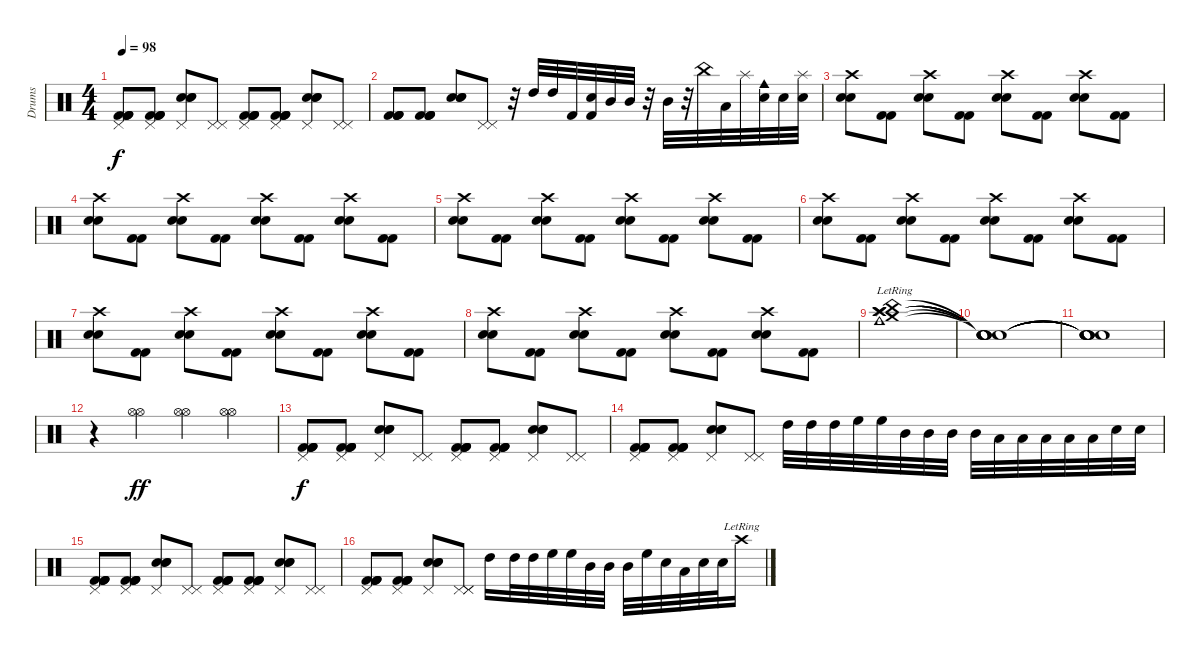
\track ("Drums" "Drums") {instrument percussion}
\staff {score}
\articulation defaults
\ts (4 4)
\tempo 98
\clef neutral
\ks c
("Pedal Hi-Hat (hit)" "Kick (hit) 2" "Kick (hit) 2" "Kick (hit) 2" "Kick (hit) 2").8{dy f} ("Pedal Hi-Hat (hit)" "Kick (hit) 2" "Kick (hit) 2" "Kick (hit) 2" "Kick (hit) 2").8 ("Pedal Hi-Hat (hit)" "Electric Snare (hit)" "Electric Snare (hit)" "Electric Snare (hit)").8 ("Pedal Hi-Hat (hit)" "Pedal Hi-Hat (hit)").8 ("Pedal Hi-Hat (hit)" "Kick (hit) 2" "Kick (hit) 2" "Kick (hit) 2" "Kick (hit) 2").8 ("Pedal Hi-Hat (hit)" "Kick (hit) 2" "Kick (hit) 2" "Kick (hit) 2" "Kick (hit) 2").8 ("Pedal Hi-Hat (hit)" "Electric Snare (hit)" "Electric Snare (hit)" "Electric Snare (hit)").8 ("Pedal Hi-Hat (hit)" "Pedal Hi-Hat (hit)").8 |
("Kick (hit) 2" "Kick (hit) 2" "Kick (hit) 2" "Kick (hit) 2").8 ("Kick (hit) 2" "Kick (hit) 2" "Kick (hit) 2" "Kick (hit) 2").8 ("Electric Snare (hit)" "Electric Snare (hit)" "Electric Snare (hit)").8 ("Pedal Hi-Hat (hit)" "Pedal Hi-Hat (hit)").8 r.32 "High Tom (hit)".32 "High Tom (hit)".32 "Kick (hit) 2".32 ("Electric Snare (hit)" "Kick (hit) 2").32 "Mid Tom (hit)".32 "Mid Tom (hit)".32 r.32 "Mid Tom (hit)".32 r.32 "China (hit)".32 "Low Tom (hit)".32 "Splash (hit)".32 ("Electric Snare (hit)" "Cowbell medium (hit)").32 "Electric Snare (hit)".32 ("Splash (hit)" "Electric Snare (hit)").32 |
("Crash high (hit)" "Electric Snare (hit)" "Electric Snare (hit)").8 ("Kick (hit) 2" "Kick (hit) 2").8 ("Crash high (hit)" "Electric Snare (hit)" "Electric Snare (hit)").8 ("Kick (hit) 2" "Kick (hit) 2").8 ("Crash high (hit)" "Electric Snare (hit)" "Electric Snare (hit)").8 ("Kick (hit) 2" "Kick (hit) 2").8 ("Crash high (hit)" "Electric Snare (hit)" "Electric Snare (hit)").8 ("Kick (hit) 2" "Kick (hit) 2").8 |
("Crash high (hit)" "Electric Snare (hit)" "Electric Snare (hit)").8{volume 12} ("Kick (hit) 2" "Kick (hit) 2").8 ("Crash high (hit)" "Electric Snare (hit)" "Electric Snare (hit)").8 ("Kick (hit) 2" "Kick (hit) 2").8 ("Crash high (hit)" "Electric Snare (hit)" "Electric Snare (hit)").8 ("Kick (hit) 2" "Kick (hit) 2").8 ("Crash high (hit)" "Electric Snare (hit)" "Electric Snare (hit)").8 ("Kick (hit) 2" "Kick (hit) 2").8 |
("Crash high (hit)" "Electric Snare (hit)" "Electric Snare (hit)").8 ("Kick (hit) 2" "Kick (hit) 2").8 ("Crash high (hit)" "Electric Snare (hit)" "Electric Snare (hit)").8 ("Kick (hit) 2" "Kick (hit) 2").8 ("Crash high (hit)" "Electric Snare (hit)" "Electric Snare (hit)").8 ("Kick (hit) 2" "Kick (hit) 2").8 ("Crash high (hit)" "Electric Snare (hit)" "Electric Snare (hit)").8 ("Kick (hit) 2" "Kick (hit) 2").8 |
("Crash high (hit)" "Electric Snare (hit)" "Electric Snare (hit)").8 ("Kick (hit) 2" "Kick (hit) 2").8 ("Crash high (hit)" "Electric Snare (hit)" "Electric Snare (hit)").8 ("Kick (hit) 2" "Kick (hit) 2").8 ("Crash high (hit)" "Electric Snare (hit)" "Electric Snare (hit)").8 ("Kick (hit) 2" "Kick (hit) 2").8 ("Crash high (hit)" "Electric Snare (hit)" "Electric Snare (hit)").8 ("Kick (hit) 2" "Kick (hit) 2").8 |
("Crash high (hit)" "Electric Snare (hit)" "Electric Snare (hit)").8 ("Kick (hit) 2" "Kick (hit) 2").8 ("Crash high (hit)" "Electric Snare (hit)" "Electric Snare (hit)").8 ("Kick (hit) 2" "Kick (hit) 2").8 ("Crash high (hit)" "Electric Snare (hit)" "Electric Snare (hit)").8 ("Kick (hit) 2" "Kick (hit) 2").8 ("Crash high (hit)" "Electric Snare (hit)" "Electric Snare (hit)").8 ("Kick (hit) 2" "Kick (hit) 2").8 |
("Crash high (hit)" "Electric Snare (hit)" "Electric Snare (hit)").8 ("Kick (hit) 2" "Kick (hit) 2").8 ("Crash high (hit)" "Electric Snare (hit)" "Electric Snare (hit)").8 ("Kick (hit) 2" "Kick (hit) 2").8 ("Crash high (hit)" "Electric Snare (hit)" "Electric Snare (hit)").8 ("Kick (hit) 2" "Kick (hit) 2").8 ("Crash high (hit)" "Electric Snare (hit)" "Electric Snare (hit)").8 ("Kick (hit) 2" "Kick (hit) 2").8 |
("Cowbell medium (hit)"{lr} "Crash high (hit)"{lr} "Crash high (hit)"{lr} "Crash medium (hit)"{lr} "China (hit)"{lr} "Splash (hit)"{lr}).1 |
("Snare (hit)"{t} "Snare (hit)"{t} "Snare (hit)"{t} "Snare (hit)"{t} "Snare (hit)"{t} "Snare (hit)"{t}).1 |
("Snare (hit)"{t} "Snare (hit)"{t} "Snare (hit)"{t} "Snare (hit)"{t} "Snare (hit)"{t} "Snare (hit)"{t}).1 |
r.4 ("Hi-Hat (open)" "Hi-Hat (open)").4{dy ff} ("Hi-Hat (open)" "Hi-Hat (open)").4 ("Hi-Hat (open)" "Hi-Hat (open)").4 |
("Pedal Hi-Hat (hit)" "Kick (hit) 2" "Kick (hit) 2" "Kick (hit) 2" "Kick (hit) 2").8{dy f} ("Pedal Hi-Hat (hit)" "Kick (hit) 2" "Kick (hit) 2" "Kick (hit) 2" "Kick (hit) 2").8 ("Pedal Hi-Hat (hit)" "Electric Snare (hit)" "Electric Snare (hit)" "Electric Snare (hit)").8 ("Pedal Hi-Hat (hit)" "Pedal Hi-Hat (hit)").8 ("Pedal Hi-Hat (hit)" "Kick (hit) 2" "Kick (hit) 2" "Kick (hit) 2" "Kick (hit) 2").8 ("Pedal Hi-Hat (hit)" "Kick (hit) 2" "Kick (hit) 2" "Kick (hit) 2" "Kick (hit) 2").8 ("Pedal Hi-Hat (hit)" "Electric Snare (hit)" "Electric Snare (hit)" "Electric Snare (hit)").8 ("Pedal Hi-Hat (hit)" "Pedal Hi-Hat (hit)").8 |
("Pedal Hi-Hat (hit)" "Kick (hit) 2" "Kick (hit) 2" "Kick (hit) 2" "Kick (hit) 2").8 ("Pedal Hi-Hat (hit)" "Kick (hit) 2" "Kick (hit) 2" "Kick (hit) 2" "Kick (hit) 2").8 ("Pedal Hi-Hat (hit)" "Electric Snare (hit)" "Electric Snare (hit)" "Electric Snare (hit)").8 ("Pedal Hi-Hat (hit)" "Pedal Hi-Hat (hit)").8 "High Tom (hit)".32 "High Tom (hit)".32 "High Tom (hit)".32 "High Floor Tom (hit)".32 "High Floor Tom (hit)".32 "Mid Tom (hit)".32 "Mid Tom (hit)".32 "Mid Tom (hit)".32 "Mid Tom (hit)".32 "Low Tom (hit)".32 "Low Tom (hit)".32 "Low Tom (hit)".32 "Low Floor Tom (hit)".32 "Low Floor Tom (hit)".32 "Electric Snare (hit)".32 "Electric Snare (hit)".32 |
("Pedal Hi-Hat (hit)" "Kick (hit) 2" "Kick (hit) 2" "Kick (hit) 2" "Kick (hit) 2").8 ("Pedal Hi-Hat (hit)" "Kick (hit) 2" "Kick (hit) 2" "Kick (hit) 2" "Kick (hit) 2").8 ("Pedal Hi-Hat (hit)" "Electric Snare (hit)" "Electric Snare (hit)" "Electric Snare (hit)").8 ("Pedal Hi-Hat (hit)" "Pedal Hi-Hat (hit)").8 ("Pedal Hi-Hat (hit)" "Kick (hit) 2" "Kick (hit) 2" "Kick (hit) 2" "Kick (hit) 2").8 ("Pedal Hi-Hat (hit)" "Kick (hit) 2" "Kick (hit) 2" "Kick (hit) 2" "Kick (hit) 2").8 ("Pedal Hi-Hat (hit)" "Electric Snare (hit)" "Electric Snare (hit)" "Electric Snare (hit)").8 ("Pedal Hi-Hat (hit)" "Pedal Hi-Hat (hit)").8 |
("Pedal Hi-Hat (hit)" "Kick (hit) 2" "Kick (hit) 2" "Kick (hit) 2" "Kick (hit) 2").8 ("Pedal Hi-Hat (hit)" "Kick (hit) 2" "Kick (hit) 2" "Kick (hit) 2" "Kick (hit) 2").8 ("Pedal Hi-Hat (hit)" "Electric Snare (hit)" "Electric Snare (hit)" "Electric Snare (hit)").8 ("Pedal Hi-Hat (hit)" "Pedal Hi-Hat (hit)" "Pedal Hi-Hat (hit)").8 "High Tom (hit)".16 "High Tom (hit)".32 "High Tom (hit)".32 "High Floor Tom (hit)".32 "High Floor Tom (hit)".32 "Mid Tom (hit)".32 "Mid Tom (hit)".32 "Mid Tom (hit)".32 "High Floor Tom (hit)".32 "Snare (hit) 2".32 "Low Tom (hit)".32 "Snare (hit) 2".32 "Electric Snare (hit)".32 "Crash high (hit)"{lr}.16
